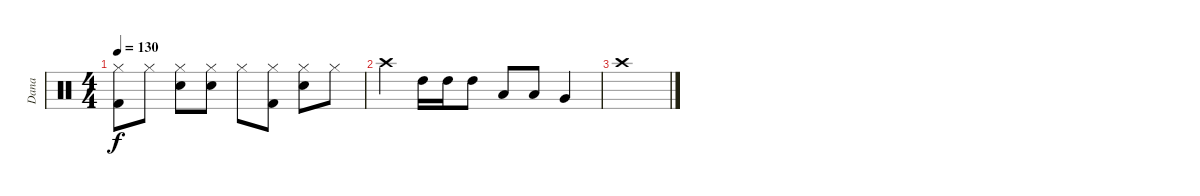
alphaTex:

\track ("Dana" "Dana") {instrument percussion}
\staff {score}
\articulation defaults
\ts (4 4)
\tempo 130
\clef neutral
\ks c
("Hi-Hat (closed)" "Kick (hit) 2").8{dy f} "Hi-Hat (closed)".8 ("Hi-Hat (closed)" "Snare (hit) 2").8 ("Hi-Hat (closed)" "Snare (hit) 2").8 "Hi-Hat (closed)".8 ("Hi-Hat (closed)" "Kick (hit) 2").8 ("Hi-Hat (closed)" "Snare (hit) 2").8 "Hi-Hat (closed)".8 |
"Crash high (hit)".4 "High Tom (hit)".16 "High Tom (hit)".16 "High Tom (hit)".8 "Low Tom (hit)".8 "Low Tom (hit)".8 "Very Low Tom (hit)".4 |
"Crash high (hit)".1
